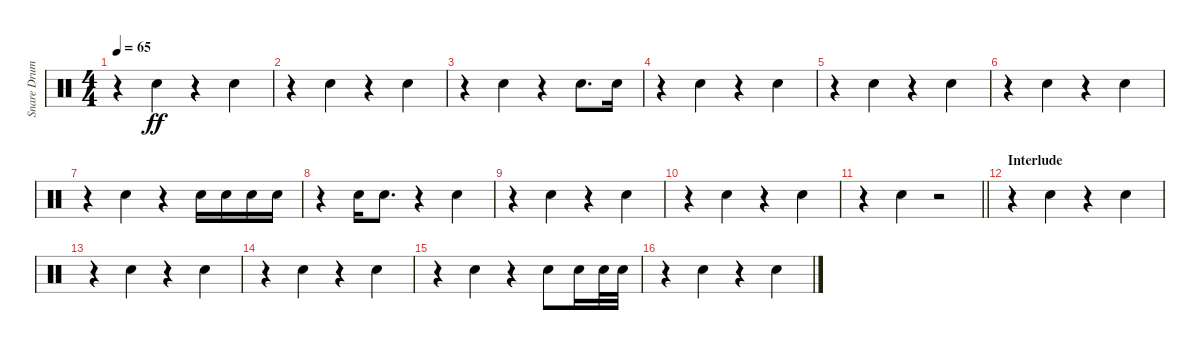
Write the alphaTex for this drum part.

\track ("Snare Drum" "Snare Drum") {instrument percussion}
\staff {score}
\articulation defaults
\ts (4 4)
\tempo 65
\clef neutral
\ks c
r.4{dy ff} "Electric Snare (hit)".4 r.4 "Electric Snare (hit)".4 |
r.4 "Electric Snare (hit)".4 r.4 "Electric Snare (hit)".4 |
r.4 "Electric Snare (hit)".4 r.4 "Electric Snare (hit)".8{d} "Electric Snare (hit)".16 |
r.4 "Electric Snare (hit)".4 r.4 "Electric Snare (hit)".4 |
r.4 "Electric Snare (hit)".4 r.4 "Electric Snare (hit)".4 |
r.4 "Electric Snare (hit)".4 r.4 "Electric Snare (hit)".4 |
r.4{beam merge} "Electric Snare (hit)".4 r.4 "Electric Snare (hit)".16 "Electric Snare (hit)".16 "Electric Snare (hit)".16 "Electric Snare (hit)".16 |
r.4 "Electric Snare (hit)".16 "Electric Snare (hit)".8{d} r.4{beam merge} "Electric Snare (hit)".4 |
r.4 "Electric Snare (hit)".4 r.4 "Electric Snare (hit)".4 |
r.4 "Electric Snare (hit)".4 r.4 "Electric Snare (hit)".4 |
\barLineRight lightlight
r.4{beam merge} "Electric Snare (hit)".4 r.2 |
\section ("" "Interlude")
r.4 "Electric Snare (hit)".4 r.4 "Electric Snare (hit)".4 |
r.4 "Electric Snare (hit)".4 r.4 "Electric Snare (hit)".4 |
r.4 "Electric Snare (hit)".4 r.4 "Electric Snare (hit)".4 |
r.4{beam merge} "Electric Snare (hit)".4 r.4 "Electric Snare (hit)".8 "Electric Snare (hit)".16 "Electric Snare (hit)".32 "Electric Snare (hit)".32 |
r.4 "Electric Snare (hit)".4 r.4 "Electric Snare (hit)".4
